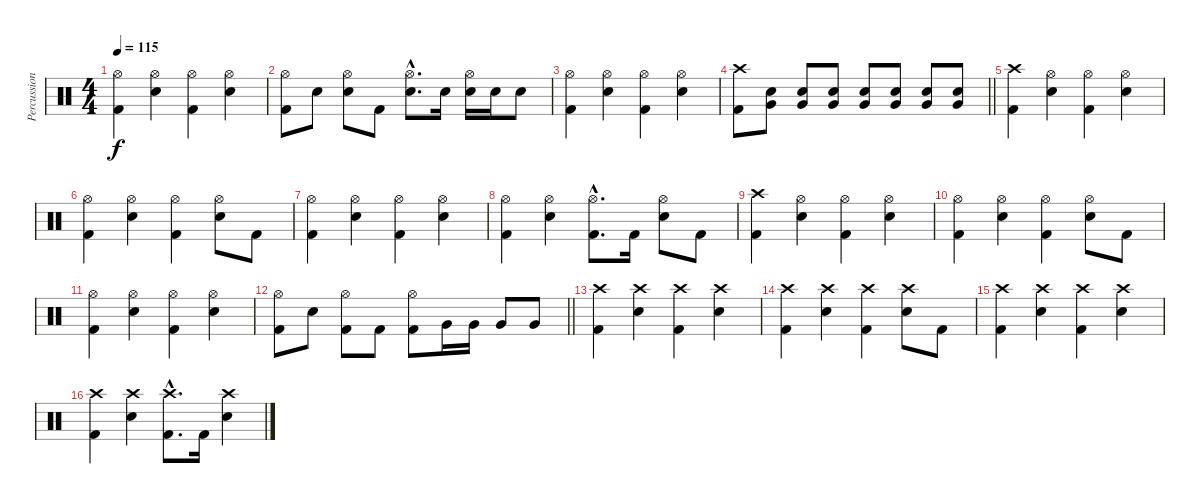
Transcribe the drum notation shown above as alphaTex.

\track ("Percussion" "Percussion") {instrument percussion}
\staff {score}
\articulation defaults
\ts (4 4)
\tempo 115
\clef neutral
\ks c
("Hi-Hat (open)" "Kick (hit) 2").4{dy f} ("Hi-Hat (open)" "Snare (hit) 2").4 ("Hi-Hat (open)" "Kick (hit) 2").4 ("Hi-Hat (open)" "Snare (hit) 2").4 |
("Hi-Hat (open)" "Kick (hit) 2").8 "Snare (hit) 2".8 ("Hi-Hat (open)" "Snare (hit) 2").8 "Kick (hit) 2".8 ("Hi-Hat (open)"{hac} "Snare (hit) 2"{hac}).8{d} "Snare (hit) 2".16 ("Hi-Hat (open)" "Snare (hit) 2").16 "Snare (hit) 2".16 "Snare (hit) 2".8 |
("Hi-Hat (open)" "Kick (hit) 2").4 ("Hi-Hat (open)" "Snare (hit) 2").4 ("Hi-Hat (open)" "Kick (hit) 2").4 ("Hi-Hat (open)" "Snare (hit) 2").4 |
\barLineRight lightlight
("Crash high (hit)" "Kick (hit) 2").8 ("Very Low Tom (hit)" "Snare (hit) 2").8 ("Very Low Tom (hit)" "Snare (hit) 2").8 ("Very Low Tom (hit)" "Snare (hit) 2").8 ("Very Low Tom (hit)" "Snare (hit) 2").8 ("Very Low Tom (hit)" "Snare (hit) 2").8 ("Very Low Tom (hit)" "Snare (hit) 2").8 ("Very Low Tom (hit)" "Snare (hit) 2").8 |
("Crash high (hit)" "Kick (hit) 2").4 ("Hi-Hat (open)" "Snare (hit) 2").4 ("Hi-Hat (open)" "Kick (hit) 2").4 ("Hi-Hat (open)" "Snare (hit) 2").4 |
("Hi-Hat (open)" "Kick (hit) 2").4 ("Hi-Hat (open)" "Snare (hit) 2").4 ("Hi-Hat (open)" "Kick (hit) 2").4 ("Hi-Hat (open)" "Snare (hit) 2").8 "Kick (hit) 2".8 |
("Hi-Hat (open)" "Kick (hit) 2").4 ("Hi-Hat (open)" "Snare (hit) 2").4 ("Hi-Hat (open)" "Kick (hit) 2").4 ("Hi-Hat (open)" "Snare (hit) 2").4 |
("Hi-Hat (open)" "Kick (hit) 2").4 ("Hi-Hat (open)" "Snare (hit) 2").4 ("Hi-Hat (open)"{hac} "Kick (hit) 2"{hac}).8{d} "Kick (hit) 2".16 ("Hi-Hat (open)" "Snare (hit) 2").8 "Kick (hit) 2".8 |
("Crash high (hit)" "Kick (hit) 2").4 ("Hi-Hat (open)" "Snare (hit) 2").4 ("Hi-Hat (open)" "Kick (hit) 2").4 ("Hi-Hat (open)" "Snare (hit) 2").4 |
("Hi-Hat (open)" "Kick (hit) 2").4 ("Hi-Hat (open)" "Snare (hit) 2").4 ("Hi-Hat (open)" "Kick (hit) 2").4 ("Hi-Hat (open)" "Snare (hit) 2").8 "Kick (hit) 2".8 |
("Hi-Hat (open)" "Kick (hit) 2").4 ("Hi-Hat (open)" "Snare (hit) 2").4 ("Hi-Hat (open)" "Kick (hit) 2").4 ("Hi-Hat (open)" "Snare (hit) 2").4 |
\barLineRight lightlight
("Hi-Hat (open)" "Kick (hit) 2").8 "Snare (hit) 2".8 ("Hi-Hat (open)" "Kick (hit) 2").8 "Kick (hit) 2".8 ("Hi-Hat (open)" "Kick (hit) 2").8 "Very Low Tom (hit)".16 "Very Low Tom (hit)".16 "Very Low Tom (hit)".8 "Very Low Tom (hit)".8 |
("Crash high (hit)" "Kick (hit) 2").4 ("Crash high (hit)" "Snare (hit) 2").4 ("Crash high (hit)" "Kick (hit) 2").4 ("Crash high (hit)" "Snare (hit) 2").4 |
("Crash high (hit)" "Kick (hit) 2").4 ("Crash high (hit)" "Snare (hit) 2").4 ("Crash high (hit)" "Kick (hit) 2").4 ("Crash high (hit)" "Snare (hit) 2").8 "Kick (hit) 2".8 |
("Crash high (hit)" "Kick (hit) 2").4 ("Crash high (hit)" "Snare (hit) 2").4 ("Crash high (hit)" "Kick (hit) 2").4 ("Crash high (hit)" "Snare (hit) 2").4 |
("Crash high (hit)" "Kick (hit) 2").4 ("Crash high (hit)" "Snare (hit) 2").4 ("Crash high (hit)"{hac} "Kick (hit) 2"{hac}).8{d} "Kick (hit) 2".16 ("Crash high (hit)" "Snare (hit) 2").4
